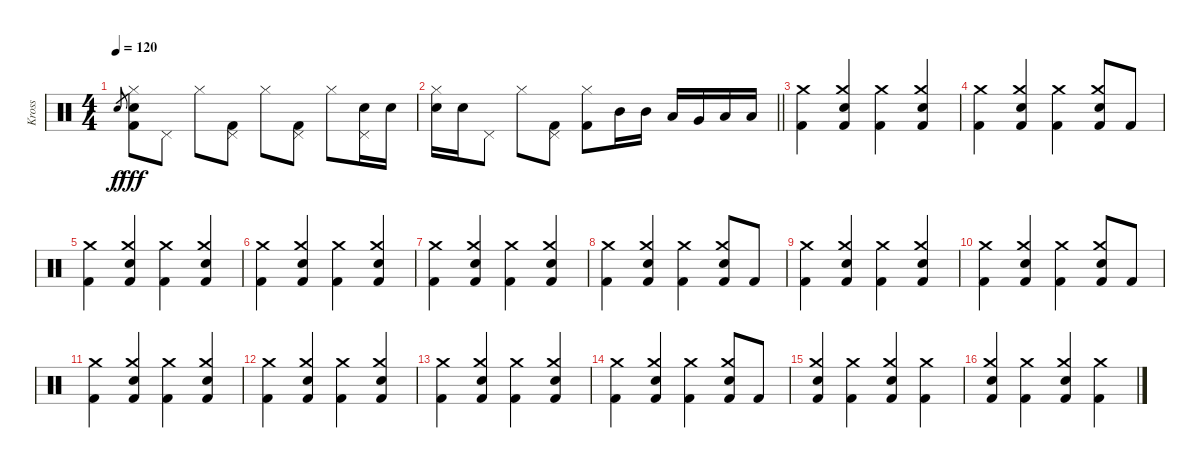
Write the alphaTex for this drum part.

\track ("Kross" "Kross") {instrument percussion}
\staff {score}
\articulation defaults
\ts (4 4)
\tempo 120
\clef neutral
\ks c "Electric Snare (hit)".8{gr dy f}
("Electric Snare (hit)" "Kick (hit) 2" "Hi-Hat (closed)").8{dy fff} "Pedal Hi-Hat (hit)".8 "Hi-Hat (closed)".8 ("Kick (hit) 2" "Pedal Hi-Hat (hit)").8 "Hi-Hat (closed)".8 ("Kick (hit) 2" "Pedal Hi-Hat (hit)").8 "Hi-Hat (closed)".8 ("Electric Snare (hit)" "Pedal Hi-Hat (hit)").16 "Electric Snare (hit)".16 |
\barLineRight lightlight
("Electric Snare (hit)" "Hi-Hat (closed)").16 "Electric Snare (hit)".16 "Pedal Hi-Hat (hit)".8 "Hi-Hat (closed)".8 ("Kick (hit) 2" "Pedal Hi-Hat (hit)").8 ("Kick (hit) 2" "Hi-Hat (closed)").8 "Mid Tom (hit)".16 "Mid Tom (hit)".16 "Low Tom (hit)".16 "Very Low Tom (hit)".16 "Low Floor Tom (hit)".16 "Low Floor Tom (hit)".16 |
("Crash medium (hit)" "Kick (hit) 2").4 ("Snare (hit) 2" "Crash medium (hit)" "Kick (hit) 2").4 ("Crash medium (hit)" "Kick (hit) 2").4 ("Snare (hit) 2" "Crash medium (hit)" "Kick (hit) 2").4 |
("Crash medium (hit)" "Kick (hit) 2").4 ("Snare (hit) 2" "Crash medium (hit)" "Kick (hit) 2").4 ("Crash medium (hit)" "Kick (hit) 2").4 ("Snare (hit) 2" "Crash medium (hit)" "Kick (hit) 2").8 "Kick (hit) 2".8 |
("Crash medium (hit)" "Kick (hit) 2").4 ("Snare (hit) 2" "Crash medium (hit)" "Kick (hit) 2").4 ("Crash medium (hit)" "Kick (hit) 2").4 ("Snare (hit) 2" "Crash medium (hit)" "Kick (hit) 2").4 |
("Crash medium (hit)" "Kick (hit) 2").4 ("Snare (hit) 2" "Crash medium (hit)" "Kick (hit) 2").4 ("Crash medium (hit)" "Kick (hit) 2").4 ("Snare (hit) 2" "Crash medium (hit)" "Kick (hit) 2").4 |
("Crash medium (hit)" "Kick (hit) 2").4 ("Snare (hit) 2" "Crash medium (hit)" "Kick (hit) 2").4 ("Crash medium (hit)" "Kick (hit) 2").4 ("Snare (hit) 2" "Crash medium (hit)" "Kick (hit) 2").4 |
("Crash medium (hit)" "Kick (hit) 2").4 ("Snare (hit) 2" "Crash medium (hit)" "Kick (hit) 2").4 ("Crash medium (hit)" "Kick (hit) 2").4 ("Snare (hit) 2" "Crash medium (hit)" "Kick (hit) 2").8 "Kick (hit) 2".8 |
("Crash medium (hit)" "Kick (hit) 2").4 ("Snare (hit) 2" "Crash medium (hit)" "Kick (hit) 2").4 ("Crash medium (hit)" "Kick (hit) 2").4 ("Snare (hit) 2" "Crash medium (hit)" "Kick (hit) 2").4 |
("Crash medium (hit)" "Kick (hit) 2").4 ("Snare (hit) 2" "Crash medium (hit)" "Kick (hit) 2").4 ("Crash medium (hit)" "Kick (hit) 2").4 ("Snare (hit) 2" "Crash medium (hit)" "Kick (hit) 2").8 "Kick (hit) 2".8 |
("Crash medium (hit)" "Kick (hit) 2").4 ("Snare (hit) 2" "Crash medium (hit)" "Kick (hit) 2").4 ("Crash medium (hit)" "Kick (hit) 2").4 ("Snare (hit) 2" "Crash medium (hit)" "Kick (hit) 2").4 |
("Crash medium (hit)" "Kick (hit) 2").4 ("Snare (hit) 2" "Crash medium (hit)" "Kick (hit) 2").4 ("Crash medium (hit)" "Kick (hit) 2").4 ("Snare (hit) 2" "Crash medium (hit)" "Kick (hit) 2").4 |
("Crash medium (hit)" "Kick (hit) 2").4 ("Snare (hit) 2" "Crash medium (hit)" "Kick (hit) 2").4 ("Crash medium (hit)" "Kick (hit) 2").4 ("Snare (hit) 2" "Crash medium (hit)" "Kick (hit) 2").4 |
("Crash medium (hit)" "Kick (hit) 2").4 ("Snare (hit) 2" "Crash medium (hit)" "Kick (hit) 2").4 ("Crash medium (hit)" "Kick (hit) 2").4 ("Snare (hit) 2" "Crash medium (hit)" "Kick (hit) 2").8 "Kick (hit) 2".8 |
("Snare (hit) 2" "Crash medium (hit)" "Kick (hit) 2").4 ("Crash medium (hit)" "Kick (hit) 2").4 ("Snare (hit) 2" "Crash medium (hit)" "Kick (hit) 2").4 ("Crash medium (hit)" "Kick (hit) 2").4 |
("Snare (hit) 2" "Crash medium (hit)" "Kick (hit) 2").4 ("Crash medium (hit)" "Kick (hit) 2").4 ("Snare (hit) 2" "Crash medium (hit)" "Kick (hit) 2").4 ("Crash medium (hit)" "Kick (hit) 2").4
